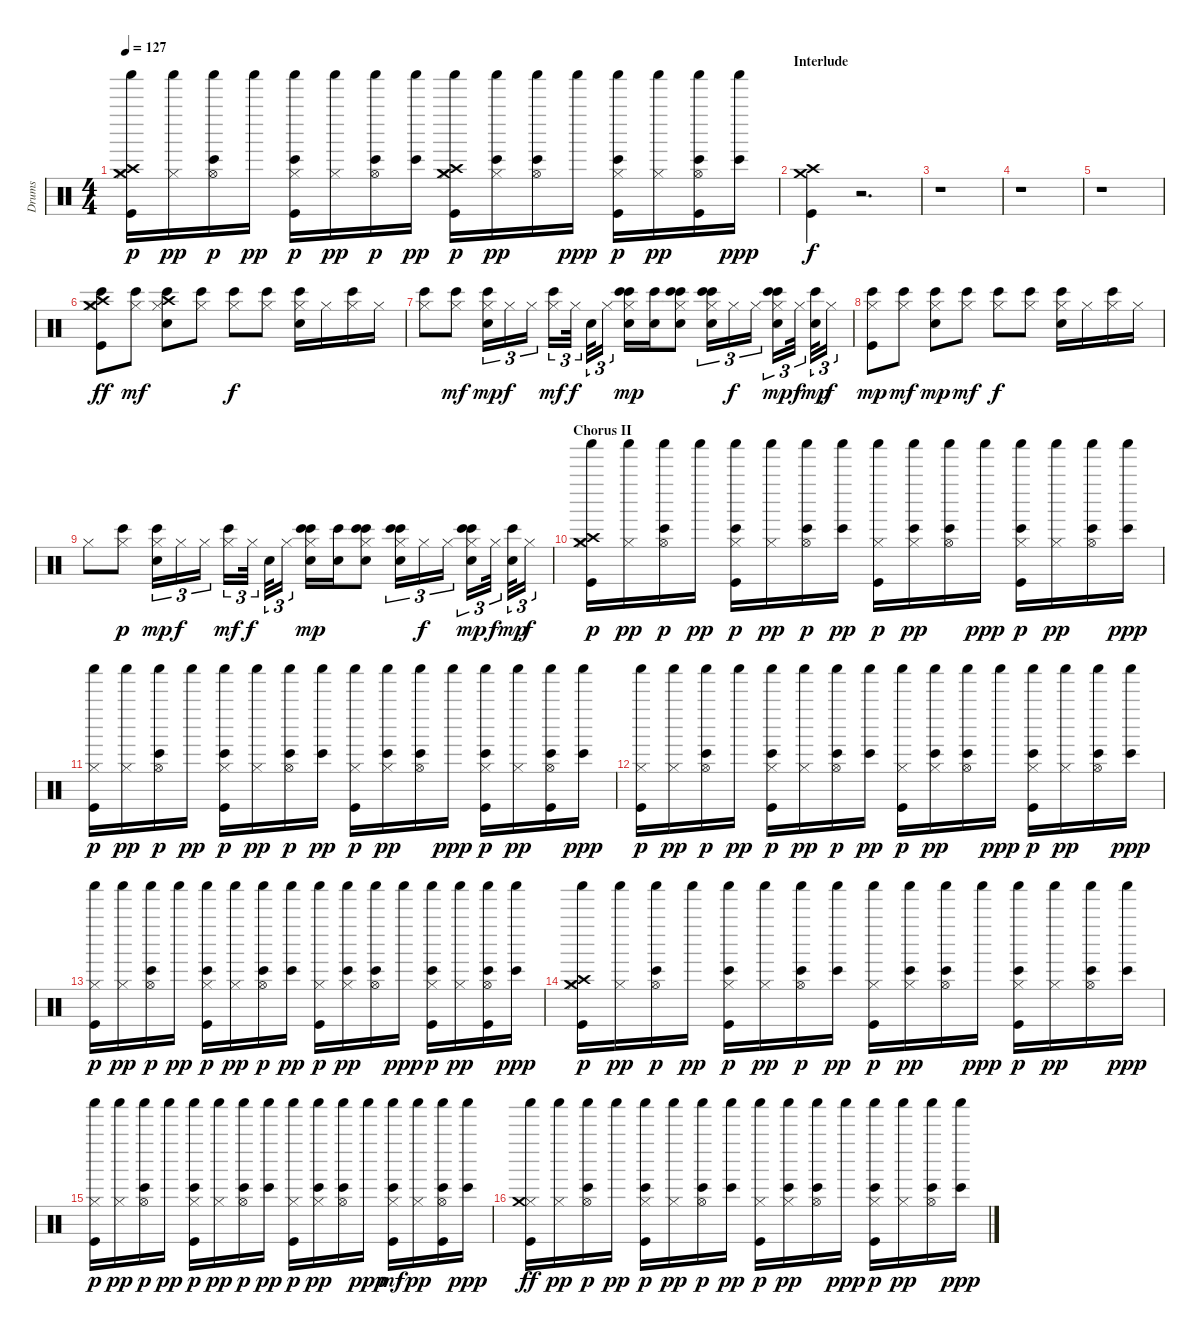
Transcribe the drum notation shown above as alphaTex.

\track ("Drums" "Drums") {instrument percussion}
\staff {score}
\articulation defaults
\ts (4 4)
\tempo 127
\clef neutral
\ks c
("Shaker (hit)" "Crash medium (hit)" "Kick (hit)" "Crash high (hit)" "Hi-Hat (closed)").16{dy p} ("Hi-Hat (closed)" "Shaker (hit)").16{dy pp} ("Bongo High (hit)" "Hi-Hat (open)" "Shaker (hit)").16{dy p} "Shaker (hit)".16{dy pp} ("Bongo High (hit)" "Kick (hit)" "Hi-Hat (closed)" "Shaker (hit)").16{dy p} ("Hi-Hat (closed)" "Shaker (hit)").16{dy pp} ("Bongo High (hit)" "Hi-Hat (open)" "Shaker (hit)").16{dy p} ("Bongo High (hit)" "Shaker (hit)").16{dy pp} ("Shaker (hit)" "Crash high (hit)" "Kick (hit)" "Crash medium (hit)" "Hi-Hat (closed)").16{dy p} ("Bongo High (hit)" "Hi-Hat (closed)" "Shaker (hit)").16{dy pp} ("Bongo High (hit)" "Hi-Hat (open)" "Shaker (hit)").16 "Shaker (hit)".16{dy ppp} ("Bongo High (hit)" "Kick (hit)" "Hi-Hat (closed)" "Shaker (hit)").16{dy p} ("Hi-Hat (closed)" "Shaker (hit)").16{dy pp} ("Kick (hit)" "Bongo High (hit)" "Hi-Hat (open)" "Shaker (hit)").16 ("Bongo High (hit)" "Shaker (hit)").16{dy ppp} |
\section ("" "Interlude")
("Crash high (hit)" "Kick (hit)" "Crash medium (hit)").4{dy f} r.2{d} |
r.1 |
r.1 |
r.1 |
("Kick (hit)" "Bongo High (hit)" "Crash high (hit)" "Crash medium (hit)" "Hi-Hat (closed)").8{dy ff} ("Hi-Hat (closed)" "Bongo High (hit)").8{dy mf} ("Bongo High (hit)" "Crash high (hit)" "Hand Clap (hit)" "Hi-Hat (closed)").8 ("Hi-Hat (closed)" "Bongo High (hit)").8 ("Bongo High (hit)" "Hi-Hat (closed)").8{dy f} ("Bongo High (hit)" "Hi-Hat (closed)").8 ("Hi-Hat (closed)" "Bongo High (hit)" "Hand Clap (hit)").16 "Hi-Hat (closed)".16 ("Hi-Hat (closed)" "Bongo High (hit)").16 "Hi-Hat (closed)".16 |
("Bongo High (hit)" "Hi-Hat (closed)").8 ("Bongo High (hit)" "Hi-Hat (closed)").8{dy mf} ("Bongo High (hit)" "Hand Clap (hit)" "Hi-Hat (closed)").16{tu (3 2) dy mp} "Hi-Hat (closed)".16{tu (3 2) dy f} "Hi-Hat (closed)".16{tu (3 2)} ("Hi-Hat (closed)" "Bongo High (hit)").16{tu (3 2) dy mf} "Hi-Hat (closed)".32{tu (3 2) dy f} "Hand Clap (hit)".32{tu (3 2)} "Hi-Hat (closed)".16{tu (3 2)} ("Bongo High (hit)" "Bongo High (hit)" "Hand Clap (hit)" "Hi-Hat (closed)").16{dy mp} ("Hand Clap (hit)" "Bongo High (hit)").16 ("Bongo High (hit)" "Bongo High (hit)" "Hand Clap (hit)" "Hi-Hat (closed)").8 ("Bongo High (hit)" "Hi-Hat (closed)" "Hand Clap (hit)" "Bongo High (hit)").16{tu (3 2)} "Hi-Hat (closed)".16{tu (3 2) dy f} "Hi-Hat (closed)".16{tu (3 2)} ("Bongo High (hit)" "Bongo High (hit)" "Hand Clap (hit)" "Hi-Hat (closed)").16{tu (3 2) dy mp} "Hi-Hat (closed)".32{tu (3 2) dy f} ("Hand Clap (hit)" "Bongo High (hit)").32{tu (3 2) dy mp} "Hi-Hat (closed)".16{tu (3 2) dy f} |
("Bongo High (hit)" "Hi-Hat (closed)" "Kick (hit)").8{dy mp} ("Hi-Hat (closed)" "Bongo High (hit)").8{dy mf} ("Hi-Hat (closed)" "Bongo High (hit)" "Hand Clap (hit)").8{dy mp} ("Hi-Hat (closed)" "Bongo High (hit)").8{dy mf} ("Bongo High (hit)" "Hi-Hat (closed)").8{dy f} ("Hi-Hat (closed)" "Bongo High (hit)").8 ("Hi-Hat (closed)" "Bongo High (hit)" "Hand Clap (hit)").16 "Hi-Hat (closed)".16 ("Bongo High (hit)" "Hi-Hat (closed)").16 "Hi-Hat (closed)".16 |
"Hi-Hat (closed)".8 ("Hi-Hat (closed)" "Bongo High (hit)").8{dy p} ("Bongo High (hit)" "Hi-Hat (closed)" "Hand Clap (hit)").16{tu (3 2) dy mp} "Hi-Hat (closed)".16{tu (3 2) dy f} "Hi-Hat (closed)".16{tu (3 2)} ("Bongo High (hit)" "Hi-Hat (closed)").16{tu (3 2) dy mf} "Hi-Hat (closed)".32{tu (3 2) dy f} "Hand Clap (hit)".32{tu (3 2)} "Hi-Hat (closed)".16{tu (3 2)} ("Bongo High (hit)" "Hi-Hat (closed)" "Hand Clap (hit)" "Bongo High (hit)").16{dy mp} ("Hand Clap (hit)" "Bongo High (hit)").16 ("Bongo High (hit)" "Hi-Hat (closed)" "Hand Clap (hit)" "Bongo High (hit)").8 ("Bongo High (hit)" "Hi-Hat (closed)" "Hand Clap (hit)" "Bongo High (hit)").16{tu (3 2)} "Hi-Hat (closed)".16{tu (3 2) dy f} "Hi-Hat (closed)".16{tu (3 2)} ("Bongo High (hit)" "Hi-Hat (closed)" "Hand Clap (hit)" "Bongo High (hit)").16{tu (3 2) dy mp} "Hi-Hat (closed)".32{tu (3 2) dy f} ("Hand Clap (hit)" "Bongo High (hit)").32{tu (3 2) dy mp} "Hi-Hat (closed)".16{tu (3 2) dy f} |
\section ("" "Chorus II")
("Hi-Hat (closed)" "Crash medium (hit)" "Shaker (hit)" "Crash high (hit)" "Kick (hit)").16{dy p} ("Hi-Hat (closed)" "Shaker (hit)").16{dy pp} ("Bongo High (hit)" "Hi-Hat (open)" "Shaker (hit)").16{dy p} "Shaker (hit)".16{dy pp} ("Bongo High (hit)" "Kick (hit)" "Hi-Hat (closed)" "Shaker (hit)").16{dy p} ("Hi-Hat (closed)" "Shaker (hit)").16{dy pp} ("Bongo High (hit)" "Hi-Hat (open)" "Shaker (hit)").16{dy p} ("Bongo High (hit)" "Shaker (hit)").16{dy pp} ("Kick (hit)" "Hi-Hat (closed)" "Shaker (hit)").16{dy p} ("Bongo High (hit)" "Hi-Hat (closed)" "Shaker (hit)").16{dy pp} ("Bongo High (hit)" "Hi-Hat (open)" "Shaker (hit)").16 "Shaker (hit)".16{dy ppp} ("Bongo High (hit)" "Kick (hit)" "Hi-Hat (closed)" "Shaker (hit)").16{dy p} ("Hi-Hat (closed)" "Shaker (hit)").16{dy pp} ("Bongo High (hit)" "Hi-Hat (open)" "Shaker (hit)").16 ("Bongo High (hit)" "Shaker (hit)").16{dy ppp} |
("Kick (hit)" "Hi-Hat (closed)" "Shaker (hit)").16{dy p} ("Hi-Hat (closed)" "Shaker (hit)").16{dy pp} ("Bongo High (hit)" "Hi-Hat (open)" "Shaker (hit)").16{dy p} "Shaker (hit)".16{dy pp} ("Bongo High (hit)" "Kick (hit)" "Hi-Hat (closed)" "Shaker (hit)").16{dy p} ("Hi-Hat (closed)" "Shaker (hit)").16{dy pp} ("Bongo High (hit)" "Hi-Hat (open)" "Shaker (hit)").16{dy p} ("Bongo High (hit)" "Shaker (hit)").16{dy pp} ("Kick (hit)" "Hi-Hat (closed)" "Shaker (hit)").16{dy p} ("Bongo High (hit)" "Hi-Hat (closed)" "Shaker (hit)").16{dy pp} ("Bongo High (hit)" "Hi-Hat (open)" "Shaker (hit)").16 "Shaker (hit)".16{dy ppp} ("Bongo High (hit)" "Kick (hit)" "Hi-Hat (closed)" "Shaker (hit)").16{dy p} ("Hi-Hat (closed)" "Shaker (hit)").16{dy pp} ("Kick (hit)" "Bongo High (hit)" "Hi-Hat (open)" "Shaker (hit)").16 ("Bongo High (hit)" "Shaker (hit)").16{dy ppp} |
("Kick (hit)" "Hi-Hat (closed)" "Shaker (hit)").16{dy p} ("Hi-Hat (closed)" "Shaker (hit)").16{dy pp} ("Bongo High (hit)" "Hi-Hat (open)" "Shaker (hit)").16{dy p} "Shaker (hit)".16{dy pp} ("Bongo High (hit)" "Kick (hit)" "Hi-Hat (closed)" "Shaker (hit)").16{dy p} ("Hi-Hat (closed)" "Shaker (hit)").16{dy pp} ("Bongo High (hit)" "Hi-Hat (open)" "Shaker (hit)").16{dy p} ("Bongo High (hit)" "Shaker (hit)").16{dy pp} ("Kick (hit)" "Hi-Hat (closed)" "Shaker (hit)").16{dy p} ("Bongo High (hit)" "Hi-Hat (closed)" "Shaker (hit)").16{dy pp} ("Bongo High (hit)" "Hi-Hat (open)" "Shaker (hit)").16 "Shaker (hit)".16{dy ppp} ("Bongo High (hit)" "Kick (hit)" "Hi-Hat (closed)" "Shaker (hit)").16{dy p} ("Hi-Hat (closed)" "Shaker (hit)").16{dy pp} ("Bongo High (hit)" "Hi-Hat (open)" "Shaker (hit)").16 ("Bongo High (hit)" "Shaker (hit)").16{dy ppp} |
("Kick (hit)" "Hi-Hat (closed)" "Shaker (hit)").16{dy p} ("Hi-Hat (closed)" "Shaker (hit)").16{dy pp} ("Bongo High (hit)" "Hi-Hat (open)" "Shaker (hit)").16{dy p} "Shaker (hit)".16{dy pp} ("Bongo High (hit)" "Kick (hit)" "Hi-Hat (closed)" "Shaker (hit)").16{dy p} ("Hi-Hat (closed)" "Shaker (hit)").16{dy pp} ("Bongo High (hit)" "Hi-Hat (open)" "Shaker (hit)").16{dy p} ("Bongo High (hit)" "Shaker (hit)").16{dy pp} ("Kick (hit)" "Hi-Hat (closed)" "Shaker (hit)").16{dy p} ("Bongo High (hit)" "Hi-Hat (closed)" "Shaker (hit)").16{dy pp} ("Bongo High (hit)" "Hi-Hat (open)" "Shaker (hit)").16 "Shaker (hit)".16{dy ppp} ("Bongo High (hit)" "Kick (hit)" "Hi-Hat (closed)" "Shaker (hit)").16{dy p} ("Hi-Hat (closed)" "Shaker (hit)").16{dy pp} ("Kick (hit)" "Bongo High (hit)" "Hi-Hat (open)" "Shaker (hit)").16 ("Bongo High (hit)" "Shaker (hit)").16{dy ppp} |
("Kick (hit)" "Hi-Hat (closed)" "Crash medium (hit)" "Shaker (hit)" "Crash high (hit)").16{dy p} ("Hi-Hat (closed)" "Shaker (hit)").16{dy pp} ("Bongo High (hit)" "Hi-Hat (open)" "Shaker (hit)").16{dy p} "Shaker (hit)".16{dy pp} ("Bongo High (hit)" "Kick (hit)" "Hi-Hat (closed)" "Shaker (hit)").16{dy p} ("Hi-Hat (closed)" "Shaker (hit)").16{dy pp} ("Bongo High (hit)" "Hi-Hat (open)" "Shaker (hit)").16{dy p} ("Bongo High (hit)" "Shaker (hit)").16{dy pp} ("Kick (hit)" "Hi-Hat (closed)" "Shaker (hit)").16{dy p} ("Bongo High (hit)" "Hi-Hat (closed)" "Shaker (hit)").16{dy pp} ("Bongo High (hit)" "Hi-Hat (open)" "Shaker (hit)").16 "Shaker (hit)".16{dy ppp} ("Bongo High (hit)" "Kick (hit)" "Hi-Hat (closed)" "Shaker (hit)").16{dy p} ("Hi-Hat (closed)" "Shaker (hit)").16{dy pp} ("Bongo High (hit)" "Hi-Hat (open)" "Shaker (hit)").16 ("Bongo High (hit)" "Shaker (hit)").16{dy ppp} |
("Kick (hit)" "Hi-Hat (closed)" "Shaker (hit)").16{dy p} ("Hi-Hat (closed)" "Shaker (hit)").16{dy pp} ("Bongo High (hit)" "Hi-Hat (open)" "Shaker (hit)").16{dy p} "Shaker (hit)".16{dy pp} ("Bongo High (hit)" "Kick (hit)" "Hi-Hat (closed)" "Shaker (hit)").16{dy p} ("Hi-Hat (closed)" "Shaker (hit)").16{dy pp} ("Bongo High (hit)" "Hi-Hat (open)" "Shaker (hit)").16{dy p} ("Bongo High (hit)" "Shaker (hit)").16{dy pp} ("Kick (hit)" "Hi-Hat (closed)" "Shaker (hit)").16{dy p} ("Bongo High (hit)" "Hi-Hat (closed)" "Shaker (hit)").16{dy pp} ("Bongo High (hit)" "Hi-Hat (open)" "Shaker (hit)").16 "Shaker (hit)".16{dy ppp} ("Kick (hit)" "Hi-Hat (closed)" "Shaker (hit)" "Bongo High (hit)").16{dy mf} ("Hi-Hat (closed)" "Shaker (hit)").16{dy pp} ("Kick (hit)" "Bongo High (hit)" "Hi-Hat (open)" "Shaker (hit)").16 ("Bongo High (hit)" "Shaker (hit)").16{dy ppp} |
("Hi-Hat (closed)" "Shaker (hit)" "Crash medium (hit)" "Kick (hit)").16{dy ff} ("Hi-Hat (closed)" "Shaker (hit)").16{dy pp} ("Bongo High (hit)" "Hi-Hat (open)" "Shaker (hit)").16{dy p} "Shaker (hit)".16{dy pp} ("Bongo High (hit)" "Kick (hit)" "Hi-Hat (closed)" "Shaker (hit)").16{dy p} ("Hi-Hat (closed)" "Shaker (hit)").16{dy pp} ("Bongo High (hit)" "Hi-Hat (open)" "Shaker (hit)").16{dy p} ("Bongo High (hit)" "Shaker (hit)").16{dy pp} ("Kick (hit)" "Hi-Hat (closed)" "Shaker (hit)").16{dy p} ("Bongo High (hit)" "Hi-Hat (closed)" "Shaker (hit)").16{dy pp} ("Bongo High (hit)" "Hi-Hat (open)" "Shaker (hit)").16 "Shaker (hit)".16{dy ppp} ("Bongo High (hit)" "Kick (hit)" "Hi-Hat (closed)" "Shaker (hit)").16{dy p} ("Hi-Hat (closed)" "Shaker (hit)").16{dy pp} ("Bongo High (hit)" "Hi-Hat (open)" "Shaker (hit)").16 ("Bongo High (hit)" "Shaker (hit)").16{dy ppp}
